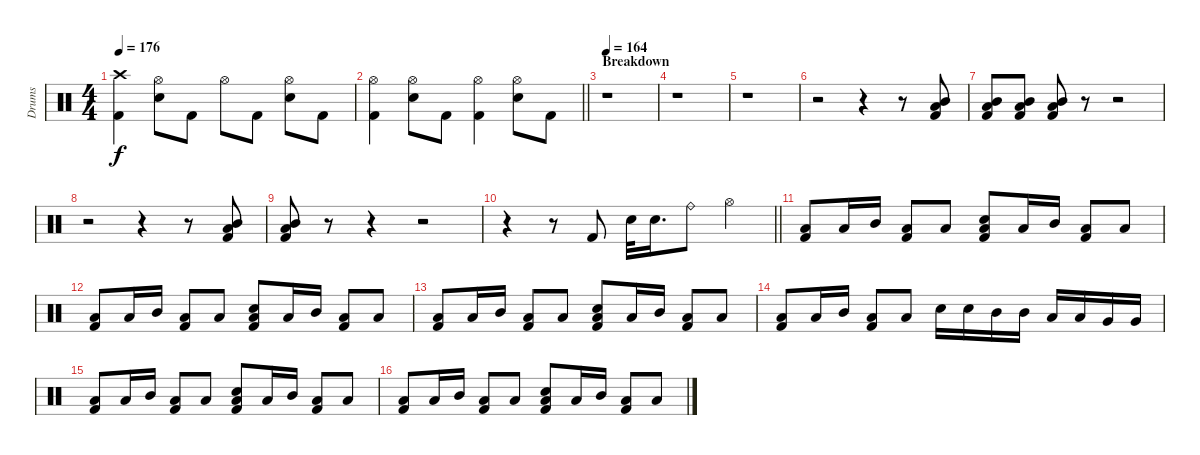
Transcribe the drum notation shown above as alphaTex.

\track ("Drums" "Drums") {instrument percussion}
\staff {score}
\articulation defaults
\ts (4 4)
\tempo 176
\clef neutral
\ks c
("Crash high (hit)" "Kick (hit) 2").4{dy f} ("Hi-Hat (open)" "Electric Snare (hit)").8 "Kick (hit) 2".8 "Hi-Hat (open)".8 "Kick (hit) 2".8 ("Hi-Hat (open)" "Electric Snare (hit)").8 "Kick (hit) 2".8 |
\barLineRight lightlight
("Hi-Hat (open)" "Kick (hit) 2").4 ("Hi-Hat (open)" "Electric Snare (hit)").8 "Kick (hit) 2".8 ("Hi-Hat (open)" "Kick (hit) 2").4 ("Hi-Hat (open)" "Electric Snare (hit)").8 "Kick (hit) 2".8 |
\section ("" "Breakdown")
\tempo 164
r.1 |
r.1 |
r.1 |
r.2 r.4 r.8 ("Mid Tom (hit)" "Low Tom (hit)" "Kick (hit) 2").8 |
("Mid Tom (hit)" "Low Tom (hit)" "Kick (hit) 2").8 ("Mid Tom (hit)" "Low Tom (hit)" "Kick (hit) 2").8 ("Mid Tom (hit)" "Low Tom (hit)" "Kick (hit) 2").8 r.8 r.2 |
r.2 r.4 r.8 ("Mid Tom (hit)" "Low Tom (hit)" "Kick (hit) 2").8 |
("Mid Tom (hit)" "Low Tom (hit)" "Kick (hit) 2").8 r.8 r.4 r.2 |
\barLineRight lightlight
r.4 r.8 "Kick (hit) 2".8 "Electric Snare (hit)".32 "Electric Snare (hit)".16{d} "Ride (bell)".8 "Hi-Hat (open)".4 |
\section ("" "")
("Low Tom (hit)" "Kick (hit) 2").8 "Low Tom (hit)".16 "Mid Tom (hit)".16 ("Low Tom (hit)" "Kick (hit) 2").8 "Low Tom (hit)".8 ("Electric Snare (hit)" "Low Tom (hit)" "Kick (hit) 2").8 "Low Tom (hit)".16 "Mid Tom (hit)".16 ("Low Tom (hit)" "Kick (hit) 2").8 "Low Tom (hit)".8 |
("Low Tom (hit)" "Kick (hit) 2").8 "Low Tom (hit)".16 "Mid Tom (hit)".16 ("Low Tom (hit)" "Kick (hit) 2").8 "Low Tom (hit)".8 ("Electric Snare (hit)" "Low Tom (hit)" "Kick (hit) 2").8 "Low Tom (hit)".16 "Mid Tom (hit)".16 ("Low Tom (hit)" "Kick (hit) 2").8 "Low Tom (hit)".8 |
("Low Tom (hit)" "Kick (hit) 2").8 "Low Tom (hit)".16 "Mid Tom (hit)".16 ("Low Tom (hit)" "Kick (hit) 2").8 "Low Tom (hit)".8 ("Electric Snare (hit)" "Low Tom (hit)" "Kick (hit) 2").8 "Low Tom (hit)".16 "Mid Tom (hit)".16 ("Low Tom (hit)" "Kick (hit) 2").8 "Low Tom (hit)".8 |
("Low Tom (hit)" "Kick (hit) 2").8 "Low Tom (hit)".16 "Mid Tom (hit)".16 ("Low Tom (hit)" "Kick (hit) 2").8 "Low Tom (hit)".8 "Electric Snare (hit)".16 "Electric Snare (hit)".16 "Mid Tom (hit)".16 "Mid Tom (hit)".16 "Low Tom (hit)".16 "Low Tom (hit)".16 "Very Low Tom (hit)".16 "Very Low Tom (hit)".16 |
("Low Tom (hit)" "Kick (hit) 2").8 "Low Tom (hit)".16 "Mid Tom (hit)".16 ("Low Tom (hit)" "Kick (hit) 2").8 "Low Tom (hit)".8 ("Electric Snare (hit)" "Low Tom (hit)" "Kick (hit) 2").8 "Low Tom (hit)".16 "Mid Tom (hit)".16 ("Low Tom (hit)" "Kick (hit) 2").8 "Low Tom (hit)".8 |
("Low Tom (hit)" "Kick (hit) 2").8 "Low Tom (hit)".16 "Mid Tom (hit)".16 ("Low Tom (hit)" "Kick (hit) 2").8 "Low Tom (hit)".8 ("Electric Snare (hit)" "Low Tom (hit)" "Kick (hit) 2").8 "Low Tom (hit)".16 "Mid Tom (hit)".16 ("Low Tom (hit)" "Kick (hit) 2").8 "Low Tom (hit)".8
